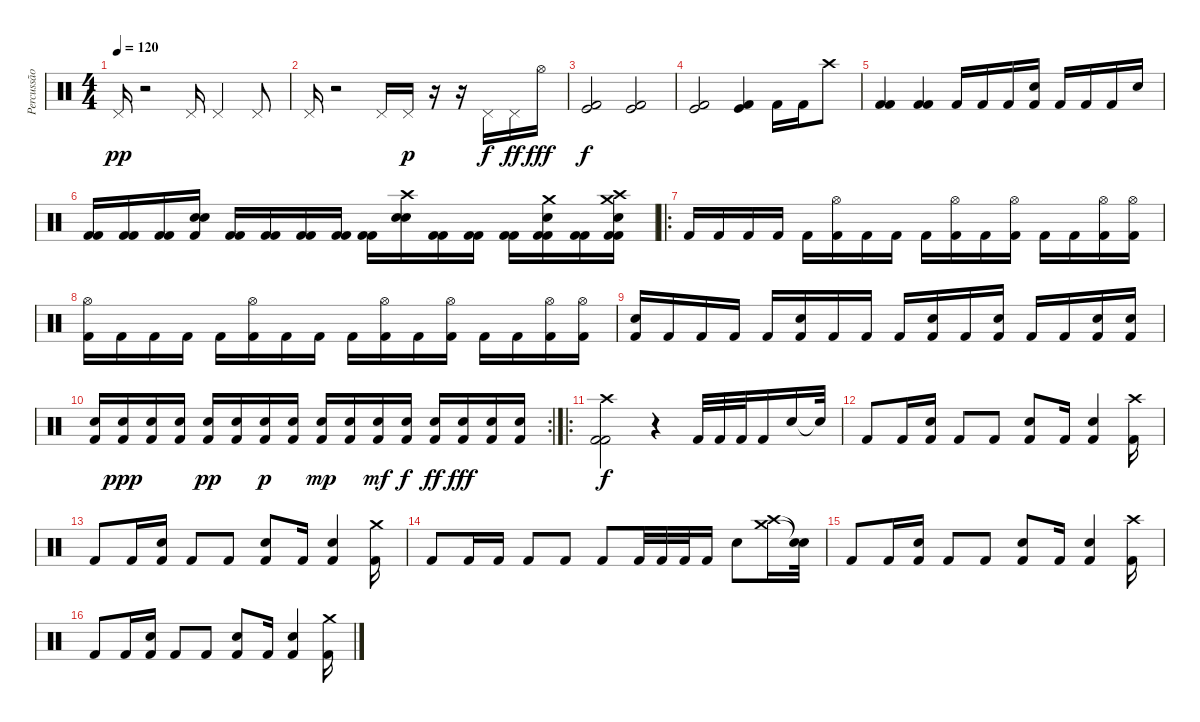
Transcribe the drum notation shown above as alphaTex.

\track ("Percussão" "Percussão") {instrument percussion}
\staff {score}
\articulation defaults
\ts (4 4)
\tempo 120
\clef neutral
\ks c "Pedal Hi-Hat (hit)".16{dy pp}
r.2 "Pedal Hi-Hat (hit)".16 "Pedal Hi-Hat (hit)".4 "Pedal Hi-Hat (hit)".8 |
"Pedal Hi-Hat (hit)".16 r.2 "Pedal Hi-Hat (hit)".16 "Pedal Hi-Hat (hit)".16{dy p} r.16 r.16 "Pedal Hi-Hat (hit)".16{dy f} "Pedal Hi-Hat (hit)".16{dy ff} "Hi-Hat (open)".16{dy fff} |
("Kick (hit)" "Kick (hit) 2").2{dy f} ("Kick (hit)" "Kick (hit) 2").2 |
("Kick (hit)" "Kick (hit) 2").2 ("Kick (hit)" "Kick (hit) 2").4 "Kick (hit) 2".16 "Kick (hit) 2".16 "Crash high (hit)".8 |
("Kick (hit) 2" "Kick (hit) 2").4 ("Kick (hit) 2" "Kick (hit) 2").4 "Kick (hit) 2".16 "Kick (hit) 2".16 "Kick (hit) 2".16 ("Snare (hit) 2" "Kick (hit) 2").16 "Kick (hit) 2".16 "Kick (hit) 2".16 "Kick (hit) 2".16 "Snare (hit) 2".16 |
("Kick (hit) 2" "Kick (hit) 2").16 ("Kick (hit) 2" "Kick (hit) 2").16 ("Kick (hit) 2" "Kick (hit) 2").16 ("Kick (hit) 2" "Snare (hit) 2" "Snare (hit) 2").16 ("Kick (hit) 2" "Kick (hit) 2").16 ("Kick (hit) 2" "Kick (hit) 2").16 ("Kick (hit) 2" "Kick (hit) 2").16 ("Kick (hit) 2" "Kick (hit) 2").16 ("Kick (hit) 2" "Kick (hit) 2").16 ("Crash high (hit)" "Snare (hit) 2" "Snare (hit) 2").16 ("Kick (hit) 2" "Kick (hit) 2").16 ("Kick (hit) 2" "Kick (hit) 2").16 ("Kick (hit) 2" "Kick (hit) 2").16 ("Crash medium (hit)" "Snare (hit) 2" "Kick (hit) 2" "Kick (hit) 2").16 ("Kick (hit) 2" "Kick (hit) 2").16 ("Crash medium (hit)" "Crash high (hit)" "Snare (hit) 2" "Kick (hit) 2" "Kick (hit) 2").16 |
\ro "Kick (hit) 2".16 "Kick (hit) 2".16 "Kick (hit) 2".16 "Kick (hit) 2".16 "Kick (hit) 2".16
("Kick (hit) 2" "Hi-Hat (open)").16 "Kick (hit) 2".16 "Kick (hit) 2".16 "Kick (hit) 2".16 ("Kick (hit) 2" "Hi-Hat (open)").16 "Kick (hit) 2".16 ("Kick (hit) 2" "Hi-Hat (open)").16 "Kick (hit) 2".16 "Kick (hit) 2".16 ("Kick (hit) 2" "Hi-Hat (open)").16 ("Kick (hit) 2" "Hi-Hat (open)").16 |
("Kick (hit) 2" "Hi-Hat (open)").16 "Kick (hit) 2".16 "Kick (hit) 2".16 "Kick (hit) 2".16 "Kick (hit) 2".16 ("Kick (hit) 2" "Hi-Hat (open)").16 "Kick (hit) 2".16 "Kick (hit) 2".16 "Kick (hit) 2".16 ("Kick (hit) 2" "Hi-Hat (open)").16 "Kick (hit) 2".16 ("Kick (hit) 2" "Hi-Hat (open)").16 "Kick (hit) 2".16 "Kick (hit) 2".16 ("Kick (hit) 2" "Hi-Hat (open)").16 ("Kick (hit) 2" "Hi-Hat (open)").16 |
("Kick (hit) 2" "Snare (hit) 2").16 "Kick (hit) 2".16 "Kick (hit) 2".16 "Kick (hit) 2".16 "Kick (hit) 2".16 ("Kick (hit) 2" "Snare (hit) 2").16 "Kick (hit) 2".16 "Kick (hit) 2".16 "Kick (hit) 2".16 ("Kick (hit) 2" "Snare (hit) 2").16 "Kick (hit) 2".16 ("Kick (hit) 2" "Snare (hit) 2").16 "Kick (hit) 2".16 "Kick (hit) 2".16 ("Kick (hit) 2" "Snare (hit) 2").16 ("Kick (hit) 2" "Snare (hit) 2").16 |
\rc 2
("Kick (hit) 2" "Snare (hit) 2").16 ("Kick (hit) 2" "Snare (hit) 2").16{dy ppp} ("Kick (hit) 2" "Snare (hit) 2").16 ("Kick (hit) 2" "Snare (hit) 2").16 ("Kick (hit) 2" "Snare (hit) 2").16{dy pp} ("Kick (hit) 2" "Snare (hit) 2").16 ("Kick (hit) 2" "Snare (hit) 2").16{dy p} ("Kick (hit) 2" "Snare (hit) 2").16 ("Kick (hit) 2" "Snare (hit) 2").16{dy mp} ("Kick (hit) 2" "Snare (hit) 2").16 ("Kick (hit) 2" "Snare (hit) 2").16{dy mf} ("Kick (hit) 2" "Snare (hit) 2").16{dy f} ("Kick (hit) 2" "Snare (hit) 2").16{dy ff} ("Kick (hit) 2" "Snare (hit) 2").16{dy fff} ("Kick (hit) 2" "Snare (hit) 2").16 ("Kick (hit) 2" "Snare (hit) 2").16 |
\ro
("Kick (hit) 2" "Kick (hit) 2" "Crash high (hit)").2{dy f} r.4 "Kick (hit) 2".32 "Kick (hit) 2".32 "Kick (hit) 2".32 "Kick (hit) 2".16 "Snare (hit) 2".16 "Snare (hit)"{t}.32 |
"Kick (hit) 2".8 "Kick (hit) 2".16 ("Snare (hit) 2" "Kick (hit) 2").16 "Kick (hit) 2".8 "Kick (hit) 2".8 ("Snare (hit) 2" "Kick (hit) 2").8 "Kick (hit) 2".16 ("Snare (hit) 2" "Kick (hit) 2").4 ("Kick (hit) 2" "Crash high (hit)").16 |
"Kick (hit) 2".8 "Kick (hit) 2".16 ("Snare (hit) 2" "Kick (hit) 2").16 "Kick (hit) 2".8 "Kick (hit) 2".8 ("Snare (hit) 2" "Kick (hit) 2").8 "Kick (hit) 2".16 ("Snare (hit) 2" "Kick (hit) 2").4 ("Kick (hit) 2" "Crash medium (hit)").16 |
"Kick (hit) 2".8 "Kick (hit) 2".16 "Kick (hit) 2".16 "Kick (hit) 2".8 "Kick (hit) 2".8 "Kick (hit) 2".8 "Kick (hit) 2".32 "Kick (hit) 2".32 "Kick (hit) 2".32 "Kick (hit) 2".16 "Snare (hit) 2".8 ("Crash high (hit)" "Crash medium (hit)").16 ("Snare (hit)"{t} "Snare (hit)"{t}).32 |
"Kick (hit) 2".8 "Kick (hit) 2".16 ("Snare (hit) 2" "Kick (hit) 2").16 "Kick (hit) 2".8 "Kick (hit) 2".8 ("Snare (hit) 2" "Kick (hit) 2").8 "Kick (hit) 2".16 ("Snare (hit) 2" "Kick (hit) 2").4 ("Kick (hit) 2" "Crash high (hit)").16 |
"Kick (hit) 2".8 "Kick (hit) 2".16 ("Snare (hit) 2" "Kick (hit) 2").16 "Kick (hit) 2".8 "Kick (hit) 2".8 ("Snare (hit) 2" "Kick (hit) 2").8 "Kick (hit) 2".16 ("Snare (hit) 2" "Kick (hit) 2").4 ("Kick (hit) 2" "Crash medium (hit)").16
